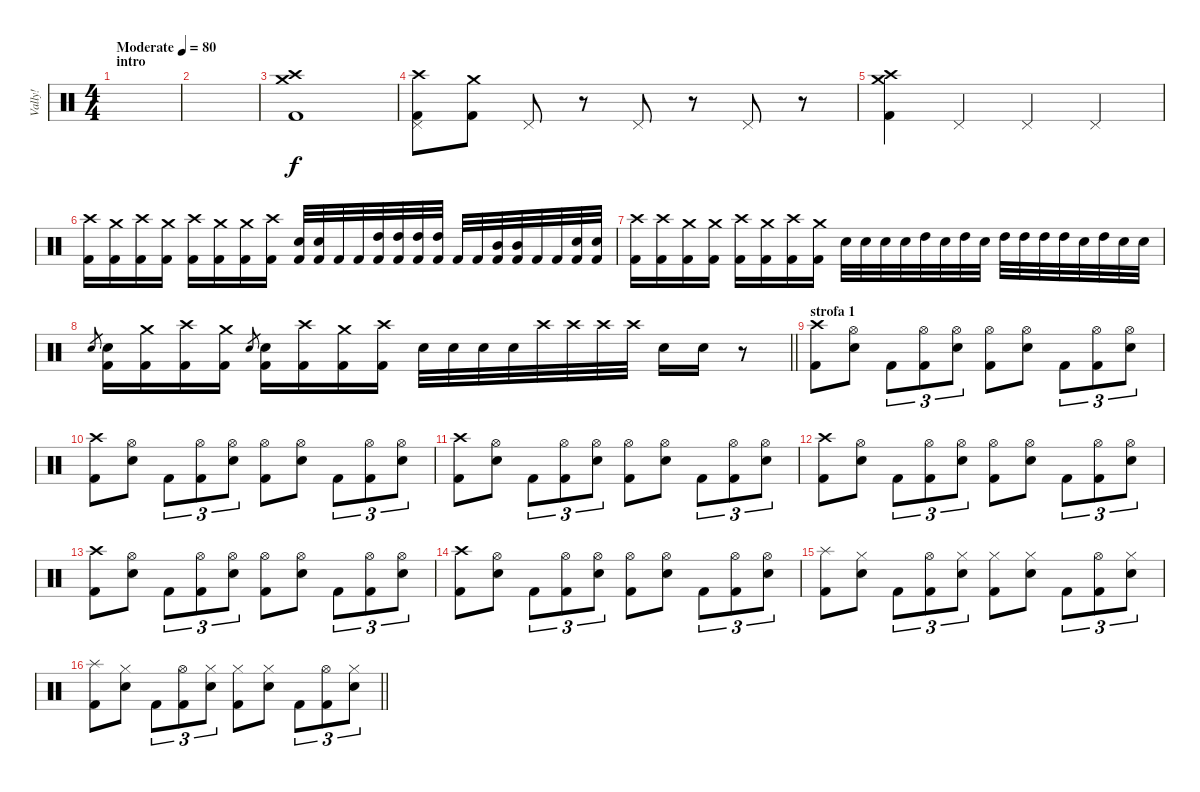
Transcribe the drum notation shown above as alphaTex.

\track ("Vally!" "Vally!") {instrument percussion}
\staff {score}
\articulation defaults
\ts (4 4)
\section ("" "intro")
\tempo (80 "Moderate")
\clef neutral
\ks c
|
|
("Crash medium (hit)" "Crash high (hit)" "Kick (hit) 2").1 |
("Crash high (hit)" "Pedal Hi-Hat (hit)" "Kick (hit) 2").8 ("Crash medium (hit)" "Kick (hit) 2").8 "Pedal Hi-Hat (hit)".8 r.8 "Pedal Hi-Hat (hit)".8 r.8 "Pedal Hi-Hat (hit)".8 r.8 |
("Crash medium (hit)" "Crash high (hit)" "Kick (hit) 2").4 "Pedal Hi-Hat (hit)".4 "Pedal Hi-Hat (hit)".4 "Pedal Hi-Hat (hit)".4 |
("Crash high (hit)" "Kick (hit) 2").16 ("Crash medium (hit)" "Kick (hit) 2").16 ("Crash high (hit)" "Kick (hit) 2").16 ("Crash medium (hit)" "Kick (hit) 2").16 ("Crash high (hit)" "Kick (hit) 2").16 ("Crash medium (hit)" "Kick (hit) 2").16 ("Crash medium (hit)" "Kick (hit) 2").16 ("Crash high (hit)" "Kick (hit) 2").16 ("Electric Snare (hit)" "Kick (hit) 2").32 ("Electric Snare (hit)" "Kick (hit) 2").32 "Kick (hit) 2".32 "Kick (hit) 2".32 ("High Tom (hit)" "Kick (hit) 2").32 ("High Tom (hit)" "Kick (hit) 2").32 ("High Tom (hit)" "Kick (hit) 2").32 ("High Tom (hit)" "Kick (hit) 2").32 "Kick (hit) 2".32 "Kick (hit) 2".32 ("Mid Tom (hit)" "Kick (hit) 2").32 ("Mid Tom (hit)" "Kick (hit) 2").32 "Kick (hit) 2".32 "Kick (hit) 2".32 ("Electric Snare (hit)" "Kick (hit) 2").32 ("Electric Snare (hit)" "Kick (hit) 2").32 |
("Crash high (hit)" "Kick (hit) 2").16 ("Crash high (hit)" "Kick (hit) 2").16 ("Crash medium (hit)" "Kick (hit) 2").16 ("Crash medium (hit)" "Kick (hit) 2").16 ("Crash high (hit)" "Kick (hit) 2").16 ("Crash medium (hit)" "Kick (hit) 2").16 ("Crash high (hit)" "Kick (hit) 2").16 ("Crash medium (hit)" "Kick (hit) 2").16 "Electric Snare (hit)".32 "Electric Snare (hit)".32 "Electric Snare (hit)".32 "Electric Snare (hit)".32 "High Tom (hit)".32 "Electric Snare (hit)".32 "High Tom (hit)".32 "Electric Snare (hit)".32 "High Tom (hit)".32 "High Tom (hit)".32 "High Tom (hit)".32 "High Tom (hit)".32 "Electric Snare (hit)".32 "High Tom (hit)".32 "Electric Snare (hit)".32 "Electric Snare (hit)".32 |
\barLineRight lightlight "Electric Snare (hit)".8{gr}
("Electric Snare (hit)" "Kick (hit) 2").16 ("Crash medium (hit)" "Kick (hit) 2").16 ("Crash high (hit)" "Kick (hit) 2").16 ("Crash medium (hit)" "Kick (hit) 2").16 "Electric Snare (hit)".8{gr} ("Electric Snare (hit)" "Kick (hit) 2").16 ("Crash high (hit)" "Kick (hit) 2").16 ("Crash medium (hit)" "Kick (hit) 2").16 ("Crash high (hit)" "Kick (hit) 2").16 "Electric Snare (hit)".32 "Electric Snare (hit)".32 "Electric Snare (hit)".32 "Electric Snare (hit)".32 "Crash high (hit)".32 "Crash high (hit)".32 "Crash high (hit)".32 "Crash high (hit)".32 "Electric Snare (hit)".16 "Electric Snare (hit)".16 r.8 |
\section ("" "strofa 1")
("Crash high (hit)" "Kick (hit) 2").8 ("Hi-Hat (open)" "Electric Snare (hit)").8 "Kick (hit) 2".8{tu (3 2)} ("Hi-Hat (open)" "Kick (hit) 2").8{tu (3 2)} ("Hi-Hat (open)" "Electric Snare (hit)").8{tu (3 2)} ("Hi-Hat (open)" "Kick (hit) 2").8 ("Hi-Hat (open)" "Electric Snare (hit)").8 "Kick (hit) 2".8{tu (3 2)} ("Hi-Hat (open)" "Kick (hit) 2").8{tu (3 2)} ("Hi-Hat (open)" "Electric Snare (hit)").8{tu (3 2)} |
("Crash high (hit)" "Kick (hit) 2").8 ("Hi-Hat (open)" "Electric Snare (hit)").8 "Kick (hit) 2".8{tu (3 2)} ("Hi-Hat (open)" "Kick (hit) 2").8{tu (3 2)} ("Hi-Hat (open)" "Electric Snare (hit)").8{tu (3 2)} ("Hi-Hat (open)" "Kick (hit) 2").8 ("Hi-Hat (open)" "Electric Snare (hit)").8 "Kick (hit) 2".8{tu (3 2)} ("Hi-Hat (open)" "Kick (hit) 2").8{tu (3 2)} ("Hi-Hat (open)" "Electric Snare (hit)").8{tu (3 2)} |
("Crash high (hit)" "Kick (hit) 2").8 ("Hi-Hat (open)" "Electric Snare (hit)").8 "Kick (hit) 2".8{tu (3 2)} ("Hi-Hat (open)" "Kick (hit) 2").8{tu (3 2)} ("Hi-Hat (open)" "Electric Snare (hit)").8{tu (3 2)} ("Hi-Hat (open)" "Kick (hit) 2").8 ("Hi-Hat (open)" "Electric Snare (hit)").8 "Kick (hit) 2".8{tu (3 2)} ("Hi-Hat (open)" "Kick (hit) 2").8{tu (3 2)} ("Hi-Hat (open)" "Electric Snare (hit)").8{tu (3 2)} |
("Crash high (hit)" "Kick (hit) 2").8 ("Hi-Hat (open)" "Electric Snare (hit)").8 "Kick (hit) 2".8{tu (3 2)} ("Hi-Hat (open)" "Kick (hit) 2").8{tu (3 2)} ("Hi-Hat (open)" "Electric Snare (hit)").8{tu (3 2)} ("Hi-Hat (open)" "Kick (hit) 2").8 ("Hi-Hat (open)" "Electric Snare (hit)").8 "Kick (hit) 2".8{tu (3 2)} ("Hi-Hat (open)" "Kick (hit) 2").8{tu (3 2)} ("Hi-Hat (open)" "Electric Snare (hit)").8{tu (3 2)} |
("Crash high (hit)" "Kick (hit) 2").8 ("Hi-Hat (open)" "Electric Snare (hit)").8 "Kick (hit) 2".8{tu (3 2)} ("Hi-Hat (open)" "Kick (hit) 2").8{tu (3 2)} ("Hi-Hat (open)" "Electric Snare (hit)").8{tu (3 2)} ("Hi-Hat (open)" "Kick (hit) 2").8 ("Hi-Hat (open)" "Electric Snare (hit)").8 "Kick (hit) 2".8{tu (3 2)} ("Hi-Hat (open)" "Kick (hit) 2").8{tu (3 2)} ("Hi-Hat (open)" "Electric Snare (hit)").8{tu (3 2)} |
("Crash high (hit)" "Kick (hit) 2").8 ("Hi-Hat (open)" "Electric Snare (hit)").8 "Kick (hit) 2".8{tu (3 2)} ("Hi-Hat (open)" "Kick (hit) 2").8{tu (3 2)} ("Hi-Hat (open)" "Electric Snare (hit)").8{tu (3 2)} ("Hi-Hat (open)" "Kick (hit) 2").8 ("Hi-Hat (open)" "Electric Snare (hit)").8 "Kick (hit) 2".8{tu (3 2)} ("Hi-Hat (open)" "Kick (hit) 2").8{tu (3 2)} ("Hi-Hat (open)" "Electric Snare (hit)").8{tu (3 2)} |
("Splash (hit)" "Kick (hit) 2").8 ("Hi-Hat (closed)" "Electric Snare (hit)").8 "Kick (hit) 2".8{tu (3 2)} ("Hi-Hat (open)" "Kick (hit) 2").8{tu (3 2)} ("Hi-Hat (closed)" "Electric Snare (hit)").8{tu (3 2)} ("Hi-Hat (closed)" "Kick (hit) 2").8 ("Hi-Hat (closed)" "Electric Snare (hit)").8 "Kick (hit) 2".8{tu (3 2)} ("Hi-Hat (open)" "Kick (hit) 2").8{tu (3 2)} ("Hi-Hat (closed)" "Electric Snare (hit)").8{tu (3 2)} |
\barLineRight lightlight
("Splash (hit)" "Kick (hit) 2").8 ("Hi-Hat (closed)" "Electric Snare (hit)").8 "Kick (hit) 2".8{tu (3 2)} ("Hi-Hat (open)" "Kick (hit) 2").8{tu (3 2)} ("Hi-Hat (closed)" "Electric Snare (hit)").8{tu (3 2)} ("Hi-Hat (closed)" "Kick (hit) 2").8 ("Hi-Hat (closed)" "Electric Snare (hit)").8 "Kick (hit) 2".8{tu (3 2)} ("Hi-Hat (open)" "Kick (hit) 2").8{tu (3 2)} ("Hi-Hat (closed)" "Electric Snare (hit)").8{tu (3 2)}
